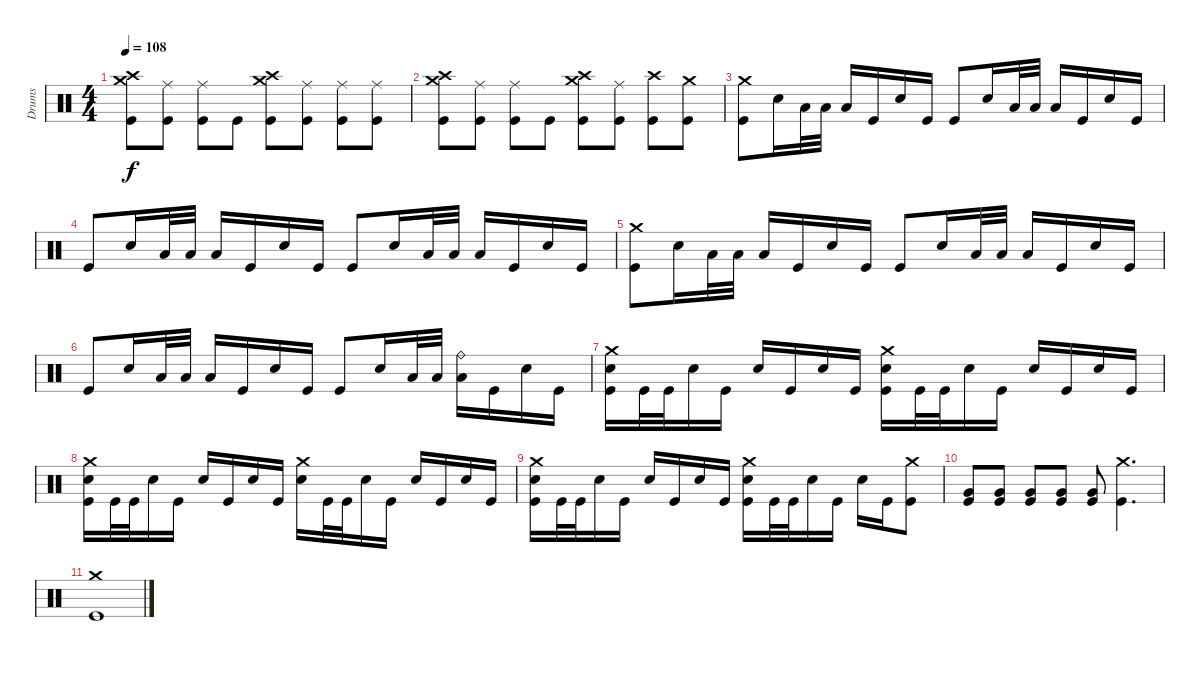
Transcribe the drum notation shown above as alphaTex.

\track ("Drums" "Drums") {instrument percussion}
\staff {score}
\articulation defaults
\ts (4 4)
\tempo 108
\clef neutral
\ks c
("Crash high (hit)" "Crash medium (hit)" "Kick (hit)").8{dy f} ("Ride (middle)" "Kick (hit)").8 ("Ride (middle)" "Kick (hit)").8 "Kick (hit)".8 ("Crash high (hit)" "Crash medium (hit)" "Kick (hit)").8 ("Ride (middle)" "Kick (hit)").8 ("Ride (middle)" "Kick (hit)").8 ("Ride (middle)" "Kick (hit)").8 |
("Crash high (hit)" "Crash medium (hit)" "Kick (hit)").8 ("Ride (middle)" "Kick (hit)").8 ("Ride (middle)" "Kick (hit)").8 "Kick (hit)".8 ("Crash medium (hit)" "Crash high (hit)" "Kick (hit)").8 ("Ride (middle)" "Kick (hit)").8 ("Crash high (hit)" "Kick (hit)").8 ("Crash medium (hit)" "Kick (hit)").8 |
("Crash medium (hit)" "Kick (hit)").8 "Electric Snare (hit)".16 "Low Floor Tom (hit)".32 "Low Floor Tom (hit)".32 "Low Floor Tom (hit)".16 "Kick (hit)".16 "Electric Snare (hit)".16 "Kick (hit)".16 "Kick (hit)".8 "Electric Snare (hit)".16 "Low Floor Tom (hit)".32 "Low Floor Tom (hit)".32 "Low Floor Tom (hit)".16 "Kick (hit)".16 "Electric Snare (hit)".16 "Kick (hit)".16 |
"Kick (hit)".8 "Electric Snare (hit)".16 "Low Floor Tom (hit)".32 "Low Floor Tom (hit)".32 "Low Floor Tom (hit)".16 "Kick (hit)".16 "Electric Snare (hit)".16 "Kick (hit)".16 "Kick (hit)".8 "Electric Snare (hit)".16 "Low Floor Tom (hit)".32 "Low Floor Tom (hit)".32 "Low Floor Tom (hit)".16 "Kick (hit)".16 "Electric Snare (hit)".16 "Kick (hit)".16 |
("Crash medium (hit)" "Kick (hit)").8 "Electric Snare (hit)".16 "Low Floor Tom (hit)".32 "Low Floor Tom (hit)".32 "Low Floor Tom (hit)".16 "Kick (hit)".16 "Electric Snare (hit)".16 "Kick (hit)".16 "Kick (hit)".8 "Electric Snare (hit)".16 "Low Floor Tom (hit)".32 "Low Floor Tom (hit)".32 "Low Floor Tom (hit)".16 "Kick (hit)".16 "Electric Snare (hit)".16 "Kick (hit)".16 |
"Kick (hit)".8 "Electric Snare (hit)".16 "Low Floor Tom (hit)".32 "Low Floor Tom (hit)".32 "Low Floor Tom (hit)".16 "Kick (hit)".16 "Electric Snare (hit)".16 "Kick (hit)".16 "Kick (hit)".8 "Electric Snare (hit)".16 "Low Floor Tom (hit)".32 "Low Floor Tom (hit)".32 ("Ride (bell)" "Low Floor Tom (hit)").16 "Kick (hit)".16 "Electric Snare (hit)".16 "Kick (hit)".16 |
("Crash medium (hit)" "Electric Snare (hit)" "Kick (hit)").16 "Kick (hit)".32 "Kick (hit)".32 "Electric Snare (hit)".16 "Kick (hit)".16 "Electric Snare (hit)".16 "Kick (hit)".16 "Electric Snare (hit)".16 "Kick (hit)".16 ("Crash medium (hit)" "Electric Snare (hit)" "Kick (hit)").16 "Kick (hit)".32 "Kick (hit)".32 "Electric Snare (hit)".16 "Kick (hit)".16 "Electric Snare (hit)".16 "Kick (hit)".16 "Electric Snare (hit)".16 "Kick (hit)".16 |
("Crash medium (hit)" "Electric Snare (hit)" "Kick (hit)").16 "Kick (hit)".32 "Kick (hit)".32 "Electric Snare (hit)".16 "Kick (hit)".16 "Electric Snare (hit)".16 "Kick (hit)".16 "Electric Snare (hit)".16 "Kick (hit)".16 ("Crash medium (hit)" "Electric Snare (hit)").16 "Kick (hit)".32 "Kick (hit)".32 "Electric Snare (hit)".16 "Kick (hit)".16 "Electric Snare (hit)".16 "Kick (hit)".16 "Electric Snare (hit)".16 "Kick (hit)".16 |
("Crash medium (hit)" "Electric Snare (hit)" "Kick (hit)").16 "Kick (hit)".32 "Kick (hit)".32 "Electric Snare (hit)".16 "Kick (hit)".16 "Electric Snare (hit)".16 "Kick (hit)".16 "Electric Snare (hit)".16 "Kick (hit)".16 ("Crash medium (hit)" "Electric Snare (hit)" "Kick (hit)").16 "Kick (hit)".32 "Kick (hit)".32 "Electric Snare (hit)".16 "Kick (hit)".16 "Electric Snare (hit)".16 "Kick (hit)".16 ("Crash medium (hit)" "Kick (hit)").8 |
("Very Low Tom (hit)" "Kick (hit)").8 ("Very Low Tom (hit)" "Kick (hit)").8 ("Very Low Tom (hit)" "Kick (hit)").8 ("Very Low Tom (hit)" "Kick (hit)").8 ("Very Low Tom (hit)" "Kick (hit)").8 ("Crash medium (hit)" "Kick (hit)").4{d} |
("Crash medium (hit)" "Kick (hit)").1
